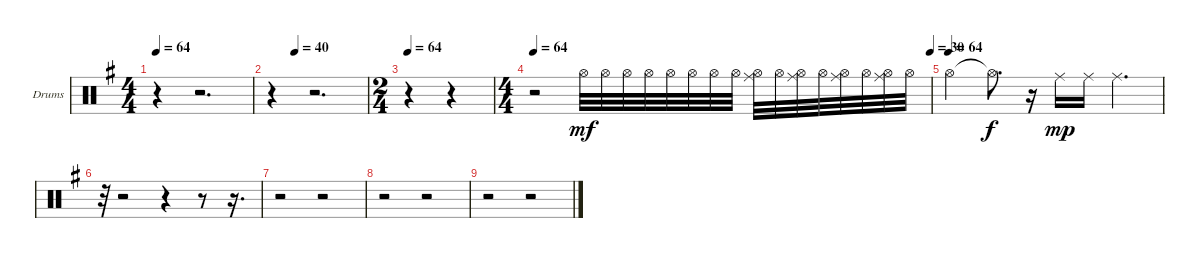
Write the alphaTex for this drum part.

\bracketExtendMode groupsimilarinstruments
\firstSystemTrackNameOrientation horizontal
\otherSystemsTrackNameOrientation horizontal
\track ("Барабаны" "Drums") {instrument percussion}
\staff {score}
\articulation defaults
\ts (4 4)
\tempo 64
\clef neutral
\ks eminor
r.4{dy p} r.2{d} |
\tempo (40 0.25)
r.4 r.2{d} |
\ts (2 4)
\beaming (8 2 2)
\tempo 64
r.4 r.4 |
\ts (4 4)
\beaming (8 2 2 2 2)
\tempo 64
\tempo (30 1)
r.2 "Hi-Hat (open)".32{dy mf} "Hi-Hat (open)".32 "Hi-Hat (open)".32 "Hi-Hat (open)".32 "Hi-Hat (open)".32 "Hi-Hat (open)".32 "Hi-Hat (open)".32 "Hi-Hat (open)".32 ("Hi-Hat (open)" "Ride (middle)").32 "Hi-Hat (open)".32 ("Hi-Hat (open)" "Ride (middle)").32 "Hi-Hat (open)".32 ("Hi-Hat (open)" "Ride (middle)").32 "Hi-Hat (open)".32 ("Hi-Hat (open)" "Ride (middle)").32 "Hi-Hat (open)".32 |
\tempo (64)
"Hi-Hat (open)".4 "Hi-Hat (open)"{t}.8{d dy f} r.16 "Ride (middle)".16{dy mp} "Ride (middle)".16 "Ride (middle)".4{d} |
r.32 r.2 r.4 r.8 r.16{d} |
r.2 r.2 |
r.2 r.2 |
r.2 r.2
